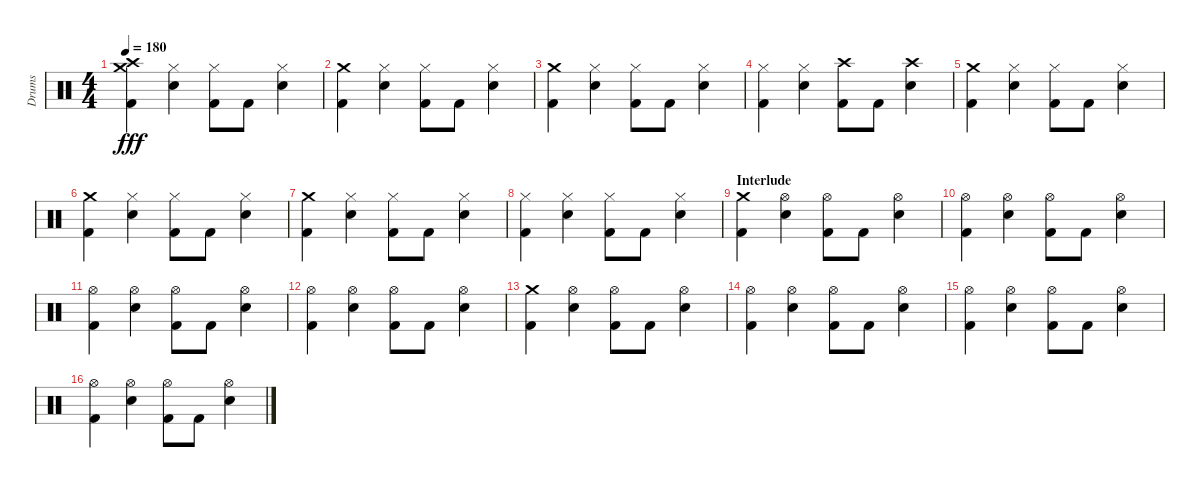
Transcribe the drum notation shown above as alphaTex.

\track ("Drums" "Drums") {instrument percussion}
\staff {score}
\articulation defaults
\ts (4 4)
\tempo 180
\clef neutral
\ks c
("Crash medium (hit)" "Crash high (hit)" "Kick (hit) 2").4{dy fff} ("Hi-Hat (closed)" "Electric Snare (hit)").4 ("Hi-Hat (closed)" "Kick (hit) 2").8 "Kick (hit) 2".8 ("Hi-Hat (closed)" "Electric Snare (hit)").4 |
("Crash medium (hit)" "Kick (hit) 2").4 ("Hi-Hat (closed)" "Electric Snare (hit)").4 ("Hi-Hat (closed)" "Kick (hit) 2").8 "Kick (hit) 2".8 ("Hi-Hat (closed)" "Electric Snare (hit)").4 |
("Crash medium (hit)" "Kick (hit) 2").4 ("Hi-Hat (closed)" "Electric Snare (hit)").4 ("Hi-Hat (closed)" "Kick (hit) 2").8 "Kick (hit) 2".8 ("Hi-Hat (closed)" "Electric Snare (hit)").4 |
("Hi-Hat (closed)" "Kick (hit) 2").4 ("Hi-Hat (closed)" "Electric Snare (hit)").4 ("Crash high (hit)" "Kick (hit) 2").8 "Kick (hit) 2".8 ("Crash high (hit)" "Electric Snare (hit)").4 |
("Crash medium (hit)" "Kick (hit) 2").4 ("Hi-Hat (closed)" "Electric Snare (hit)").4 ("Hi-Hat (closed)" "Kick (hit) 2").8 "Kick (hit) 2".8 ("Hi-Hat (closed)" "Electric Snare (hit)").4 |
("Crash medium (hit)" "Kick (hit) 2").4 ("Hi-Hat (closed)" "Electric Snare (hit)").4 ("Hi-Hat (closed)" "Kick (hit) 2").8 "Kick (hit) 2".8 ("Hi-Hat (closed)" "Electric Snare (hit)").4 |
("Crash medium (hit)" "Kick (hit) 2").4 ("Hi-Hat (closed)" "Electric Snare (hit)").4 ("Hi-Hat (closed)" "Kick (hit) 2").8 "Kick (hit) 2".8 ("Hi-Hat (closed)" "Electric Snare (hit)").4 |
("Hi-Hat (closed)" "Kick (hit) 2").4 ("Hi-Hat (closed)" "Electric Snare (hit)").4 ("Hi-Hat (closed)" "Kick (hit) 2").8 "Kick (hit) 2".8 ("Hi-Hat (closed)" "Electric Snare (hit)").4 |
\section ("" "Interlude")
("Crash medium (hit)" "Kick (hit) 2").4 ("Hi-Hat (open)" "Electric Snare (hit)").4 ("Hi-Hat (open)" "Kick (hit) 2").8 "Kick (hit) 2".8 ("Hi-Hat (open)" "Electric Snare (hit)").4 |
("Hi-Hat (open)" "Kick (hit) 2").4 ("Hi-Hat (open)" "Electric Snare (hit)").4 ("Hi-Hat (open)" "Kick (hit) 2").8 "Kick (hit) 2".8 ("Hi-Hat (open)" "Electric Snare (hit)").4 |
("Hi-Hat (open)" "Kick (hit) 2").4 ("Hi-Hat (open)" "Electric Snare (hit)").4 ("Hi-Hat (open)" "Kick (hit) 2").8 "Kick (hit) 2".8 ("Hi-Hat (open)" "Electric Snare (hit)").4 |
("Hi-Hat (open)" "Kick (hit) 2").4 ("Hi-Hat (open)" "Electric Snare (hit)").4 ("Hi-Hat (open)" "Kick (hit) 2").8 "Kick (hit) 2".8 ("Hi-Hat (open)" "Electric Snare (hit)").4 |
("Crash medium (hit)" "Kick (hit) 2").4 ("Hi-Hat (open)" "Electric Snare (hit)").4 ("Hi-Hat (open)" "Kick (hit) 2").8 "Kick (hit) 2".8 ("Hi-Hat (open)" "Electric Snare (hit)").4 |
("Hi-Hat (open)" "Kick (hit) 2").4 ("Hi-Hat (open)" "Electric Snare (hit)").4 ("Hi-Hat (open)" "Kick (hit) 2").8 "Kick (hit) 2".8 ("Hi-Hat (open)" "Electric Snare (hit)").4 |
("Hi-Hat (open)" "Kick (hit) 2").4 ("Hi-Hat (open)" "Electric Snare (hit)").4 ("Hi-Hat (open)" "Kick (hit) 2").8 "Kick (hit) 2".8 ("Hi-Hat (open)" "Electric Snare (hit)").4 |
("Hi-Hat (open)" "Kick (hit) 2").4 ("Hi-Hat (open)" "Electric Snare (hit)").4 ("Hi-Hat (open)" "Kick (hit) 2").8 "Kick (hit) 2".8 ("Hi-Hat (open)" "Electric Snare (hit)").4
